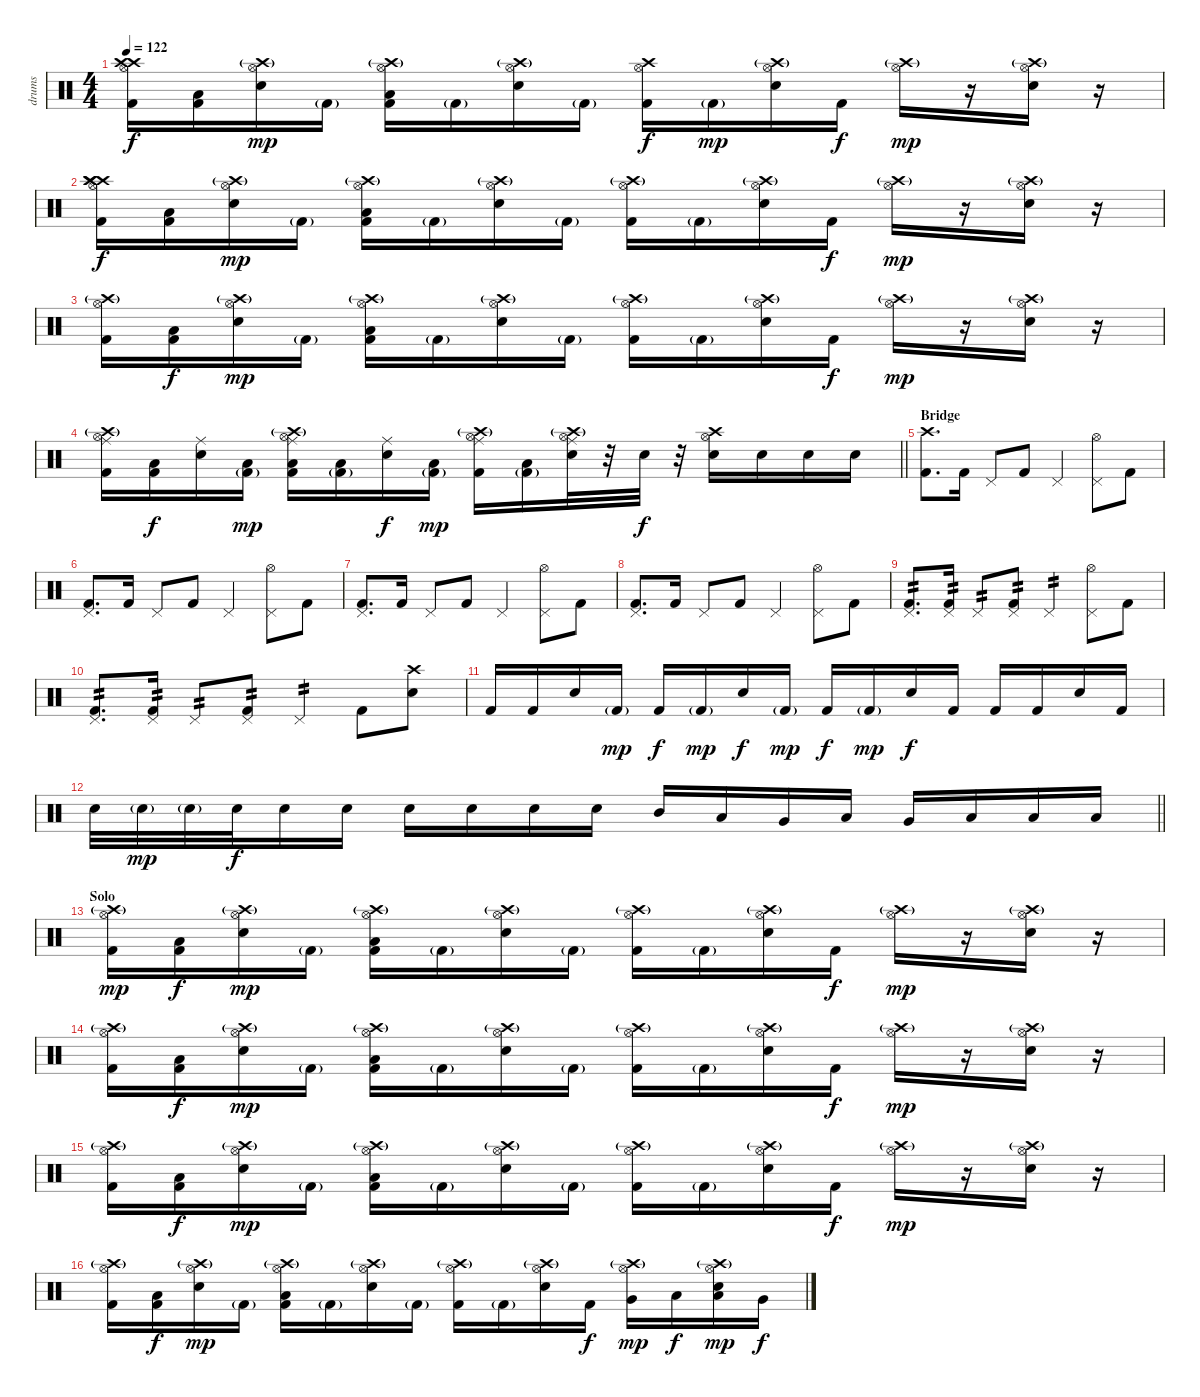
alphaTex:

\track ("drums" "drums") {instrument percussion}
\staff {score}
\articulation defaults
\ts (4 4)
\tempo 122
\clef neutral
\ks c
("Crash high (hit)" "Kick (hit) 2" "Crash high (hit)" "Hi-Hat (open)").16{dy f} ("Low Floor Tom (hit)" "Kick (hit) 2").16 ("Snare (hit) 2" "Crash high (hit)"{g} "Hi-Hat (open)").16{dy mp} "Kick (hit) 2"{g}.16{bd 60} ("Kick (hit) 2" "Low Floor Tom (hit)" "Crash high (hit)"{g} "Hi-Hat (open)").16 "Kick (hit) 2"{g}.16{bd 60} ("Snare (hit) 2" "Crash high (hit)"{g} "Hi-Hat (open)").16 "Kick (hit) 2"{g}.16{bu 60} ("Kick (hit) 2" "Crash high (hit)" "Hi-Hat (open)").16{dy f} "Kick (hit) 2"{g}.16{bd 60 dy mp} ("Snare (hit) 2" "Crash high (hit)"{g} "Hi-Hat (open)").16 "Kick (hit) 2".16{dy f} ("Crash high (hit)"{g} "Hi-Hat (open)").16{bd 60 dy mp} r.16 ("Snare (hit) 2" "Crash high (hit)"{g} "Hi-Hat (open)").16{bd 60} r.16 |
("Crash high (hit)" "Kick (hit) 2" "Crash high (hit)" "Crash high (hit)" "Hi-Hat (open)").16{dy f} ("Low Floor Tom (hit)" "Kick (hit) 2").16 ("Snare (hit) 2" "Crash high (hit)"{g} "Hi-Hat (open)").16{dy mp} "Kick (hit) 2"{g}.16{bd 60} ("Kick (hit) 2" "Low Floor Tom (hit)" "Crash high (hit)"{g} "Hi-Hat (open)").16 "Kick (hit) 2"{g}.16{bd 60} ("Snare (hit) 2" "Crash high (hit)"{g} "Hi-Hat (open)").16 "Kick (hit) 2"{g}.16{bu 60} ("Kick (hit) 2" "Crash high (hit)"{g} "Hi-Hat (open)").16 "Kick (hit) 2"{g}.16{bd 60} ("Snare (hit) 2" "Crash high (hit)"{g} "Hi-Hat (open)").16 "Kick (hit) 2".16{dy f} ("Crash high (hit)"{g} "Hi-Hat (open)").16{bd 60 dy mp} r.16 ("Snare (hit) 2" "Crash high (hit)"{g} "Hi-Hat (open)").16{bd 60} r.16 |
("Kick (hit) 2" "Crash high (hit)"{g} "Hi-Hat (open)").16 ("Low Floor Tom (hit)" "Kick (hit) 2").16{dy f} ("Snare (hit) 2" "Crash high (hit)"{g} "Hi-Hat (open)").16{dy mp} "Kick (hit) 2"{g}.16{bd 60} ("Kick (hit) 2" "Low Floor Tom (hit)" "Crash high (hit)"{g} "Hi-Hat (open)").16 "Kick (hit) 2"{g}.16{bd 60} ("Snare (hit) 2" "Crash high (hit)"{g} "Hi-Hat (open)").16 "Kick (hit) 2"{g}.16{bu 60} ("Kick (hit) 2" "Crash high (hit)"{g} "Hi-Hat (open)").16 "Kick (hit) 2"{g}.16{bd 60} ("Snare (hit) 2" "Crash high (hit)"{g} "Hi-Hat (open)").16 "Kick (hit) 2".16{dy f} ("Crash high (hit)"{g} "Hi-Hat (open)").16{bd 60 dy mp} r.16 ("Snare (hit) 2" "Crash high (hit)"{g} "Hi-Hat (open)").16{bd 60} r.16 |
\barLineRight lightlight
("Hi-Hat (open)" "Kick (hit) 2" "Crash high (hit)"{g} "Ride (middle)").16 ("Low Floor Tom (hit)" "Kick (hit) 2").16{dy f} ("Snare (hit) 2" "Ride (middle)").16 ("Low Floor Tom (hit)" "Kick (hit) 2"{g}).16{bd 60 dy mp} ("Hi-Hat (open)" "Kick (hit) 2" "Low Floor Tom (hit)" "Crash high (hit)"{g} "Ride (middle)").16 ("Low Floor Tom (hit)" "Kick (hit) 2"{g}).16{bd 60} ("Snare (hit) 2" "Ride (middle)").16{dy f} ("Low Floor Tom (hit)" "Kick (hit) 2"{g}).16{bu 60 dy mp} ("Hi-Hat (open)" "Kick (hit) 2" "Crash high (hit)"{g} "Ride (middle)").16 ("Low Floor Tom (hit)" "Kick (hit) 2"{g}).16{bd 60} ("Hi-Hat (open)" "Snare (hit) 2" "Crash high (hit)"{g} "Ride (middle)").32 r.32 "Snare (hit) 2".32{dy f} r.32 ("Hi-Hat (open)" "Snare (hit) 2" "Crash high (hit)").16 "Snare (hit) 2".16 "Snare (hit) 2".16 "Snare (hit) 2".16 |
\section ("" "Bridge")
("Crash high (hit)" "Kick (hit) 2").8{d} "Kick (hit) 2".16 "Pedal Hi-Hat (hit)".8 "Kick (hit) 2".8 "Pedal Hi-Hat (hit)".4 ("Pedal Hi-Hat (hit)" "Hi-Hat (open)").8 "Kick (hit) 2".8 |
("Pedal Hi-Hat (hit)" "Kick (hit) 2").8{d} "Kick (hit) 2".16 "Pedal Hi-Hat (hit)".8 "Kick (hit) 2".8 "Pedal Hi-Hat (hit)".4 ("Pedal Hi-Hat (hit)" "Hi-Hat (open)").8 "Kick (hit) 2".8 |
("Pedal Hi-Hat (hit)" "Kick (hit) 2").8{d} "Kick (hit) 2".16 "Pedal Hi-Hat (hit)".8 "Kick (hit) 2".8 "Pedal Hi-Hat (hit)".4 ("Pedal Hi-Hat (hit)" "Hi-Hat (open)").8 "Kick (hit) 2".8 |
("Pedal Hi-Hat (hit)" "Kick (hit) 2").8{d} "Kick (hit) 2".16 "Pedal Hi-Hat (hit)".8 "Kick (hit) 2".8 "Pedal Hi-Hat (hit)".4 ("Pedal Hi-Hat (hit)" "Hi-Hat (open)").8 "Kick (hit) 2".8 |
("Pedal Hi-Hat (hit)" "Kick (hit) 2").8{d tp 2} ("Pedal Hi-Hat (hit)" "Kick (hit) 2").16{tp 2} "Pedal Hi-Hat (hit)".8{tp 2} ("Pedal Hi-Hat (hit)" "Kick (hit) 2").8{tp 2} "Pedal Hi-Hat (hit)".4{tp 2} ("Pedal Hi-Hat (hit)" "Hi-Hat (open)").8 "Kick (hit) 2".8 |
("Pedal Hi-Hat (hit)" "Kick (hit) 2").8{d tp 2} ("Pedal Hi-Hat (hit)" "Kick (hit) 2").16{tp 2} "Pedal Hi-Hat (hit)".8{tp 2} ("Pedal Hi-Hat (hit)" "Kick (hit) 2").8{tp 2} "Pedal Hi-Hat (hit)".4{tp 2} "Kick (hit) 2".8 ("Crash high (hit)" "Snare (hit) 2").8 |
"Kick (hit) 2".16 "Kick (hit) 2".16 "Snare (hit) 2".16 "Kick (hit) 2"{g}.16{bd 60 dy mp} "Kick (hit) 2".16{dy f} "Kick (hit) 2"{g}.16{bd 60 dy mp} "Snare (hit) 2".16{dy f} "Kick (hit) 2"{g}.16{bu 60 dy mp} "Kick (hit) 2".16{dy f} "Kick (hit) 2"{g}.16{bd 60 dy mp} "Snare (hit) 2".16{dy f} "Kick (hit) 2".16 "Kick (hit) 2".16{bd 60} "Kick (hit) 2".16{bu 60} "Snare (hit) 2".16{bd 60} "Kick (hit) 2".16{bd 60} |
\barLineRight lightlight "Snare (hit) 2".32 "Snare (hit) 2"{g}.32{dy mp} "Snare (hit) 2"{g}.32 "Snare (hit) 2".32{dy f} "Snare (hit) 2".16 "Snare (hit) 2".16 "Snare (hit) 2".16 "Snare (hit) 2".16 "Snare (hit) 2".16 "Snare (hit) 2".16 "Mid Tom (hit)".16 "Low Tom (hit)".16 "Very Low Tom (hit)".16 "Low Tom (hit)".16 "Very Low Tom (hit)".16 "Low Tom (hit)".16 "Low Floor Tom (hit)".16 "Low Floor Tom (hit)".16
|
\section ("" "Solo")
("Kick (hit) 2" "Crash high (hit)"{g} "Hi-Hat (open)").16{dy mp} ("Low Floor Tom (hit)" "Kick (hit) 2").16{dy f} ("Snare (hit) 2" "Crash high (hit)"{g} "Hi-Hat (open)").16{dy mp} "Kick (hit) 2"{g}.16{bd 60} ("Kick (hit) 2" "Low Floor Tom (hit)" "Crash high (hit)"{g} "Hi-Hat (open)").16 "Kick (hit) 2"{g}.16{bd 60} ("Snare (hit) 2" "Crash high (hit)"{g} "Hi-Hat (open)").16 "Kick (hit) 2"{g}.16{bu 60} ("Kick (hit) 2" "Crash high (hit)"{g} "Hi-Hat (open)").16 "Kick (hit) 2"{g}.16{bd 60} ("Snare (hit) 2" "Crash high (hit)"{g} "Hi-Hat (open)").16 "Kick (hit) 2".16{dy f} ("Crash high (hit)"{g} "Hi-Hat (open)").16{bd 60 dy mp} r.16 ("Snare (hit) 2" "Crash high (hit)"{g} "Hi-Hat (open)").16{bd 60} r.16 |
("Kick (hit) 2" "Crash high (hit)"{g} "Hi-Hat (open)").16 ("Low Floor Tom (hit)" "Kick (hit) 2").16{dy f} ("Snare (hit) 2" "Crash high (hit)"{g} "Hi-Hat (open)").16{dy mp} "Kick (hit) 2"{g}.16{bd 60} ("Kick (hit) 2" "Low Floor Tom (hit)" "Crash high (hit)"{g} "Hi-Hat (open)").16 "Kick (hit) 2"{g}.16{bd 60} ("Snare (hit) 2" "Crash high (hit)"{g} "Hi-Hat (open)").16 "Kick (hit) 2"{g}.16{bu 60} ("Kick (hit) 2" "Crash high (hit)"{g} "Hi-Hat (open)").16 "Kick (hit) 2"{g}.16{bd 60} ("Snare (hit) 2" "Crash high (hit)"{g} "Hi-Hat (open)").16 "Kick (hit) 2".16{dy f} ("Crash high (hit)"{g} "Hi-Hat (open)").16{bd 60 dy mp} r.16 ("Snare (hit) 2" "Crash high (hit)"{g} "Hi-Hat (open)").16{bd 60} r.16 |
("Kick (hit) 2" "Crash high (hit)"{g} "Hi-Hat (open)").16 ("Low Floor Tom (hit)" "Kick (hit) 2").16{dy f} ("Snare (hit) 2" "Crash high (hit)"{g} "Hi-Hat (open)").16{dy mp} "Kick (hit) 2"{g}.16{bd 60} ("Kick (hit) 2" "Low Floor Tom (hit)" "Crash high (hit)"{g} "Hi-Hat (open)").16 "Kick (hit) 2"{g}.16{bd 60} ("Snare (hit) 2" "Crash high (hit)"{g} "Hi-Hat (open)").16 "Kick (hit) 2"{g}.16{bu 60} ("Kick (hit) 2" "Crash high (hit)"{g} "Hi-Hat (open)").16 "Kick (hit) 2"{g}.16{bd 60} ("Snare (hit) 2" "Crash high (hit)"{g} "Hi-Hat (open)").16 "Kick (hit) 2".16{dy f} ("Crash high (hit)"{g} "Hi-Hat (open)").16{bd 60 dy mp} r.16 ("Snare (hit) 2" "Crash high (hit)"{g} "Hi-Hat (open)").16{bd 60} r.16 |
("Kick (hit) 2" "Crash high (hit)"{g} "Hi-Hat (open)").16 ("Low Floor Tom (hit)" "Kick (hit) 2").16{dy f} ("Snare (hit) 2" "Crash high (hit)"{g} "Hi-Hat (open)").16{dy mp} "Kick (hit) 2"{g}.16{bd 60} ("Kick (hit) 2" "Low Floor Tom (hit)" "Crash high (hit)"{g} "Hi-Hat (open)").16 "Kick (hit) 2"{g}.16{bd 60} ("Snare (hit) 2" "Crash high (hit)"{g} "Hi-Hat (open)").16 "Kick (hit) 2"{g}.16{bu 60} ("Kick (hit) 2" "Crash high (hit)"{g} "Hi-Hat (open)").16 "Kick (hit) 2"{g}.16{bd 60} ("Snare (hit) 2" "Crash high (hit)"{g} "Hi-Hat (open)").16 "Kick (hit) 2".16{dy f} ("Very Low Tom (hit)" "Crash high (hit)"{g} "Hi-Hat (open)").16{bd 60 dy mp} "Low Floor Tom (hit)".16{dy f} ("Snare (hit) 2" "Low Tom (hit)" "Crash high (hit)"{g} "Hi-Hat (open)").16{bd 60 dy mp} "Very Low Tom (hit)".16{dy f}
